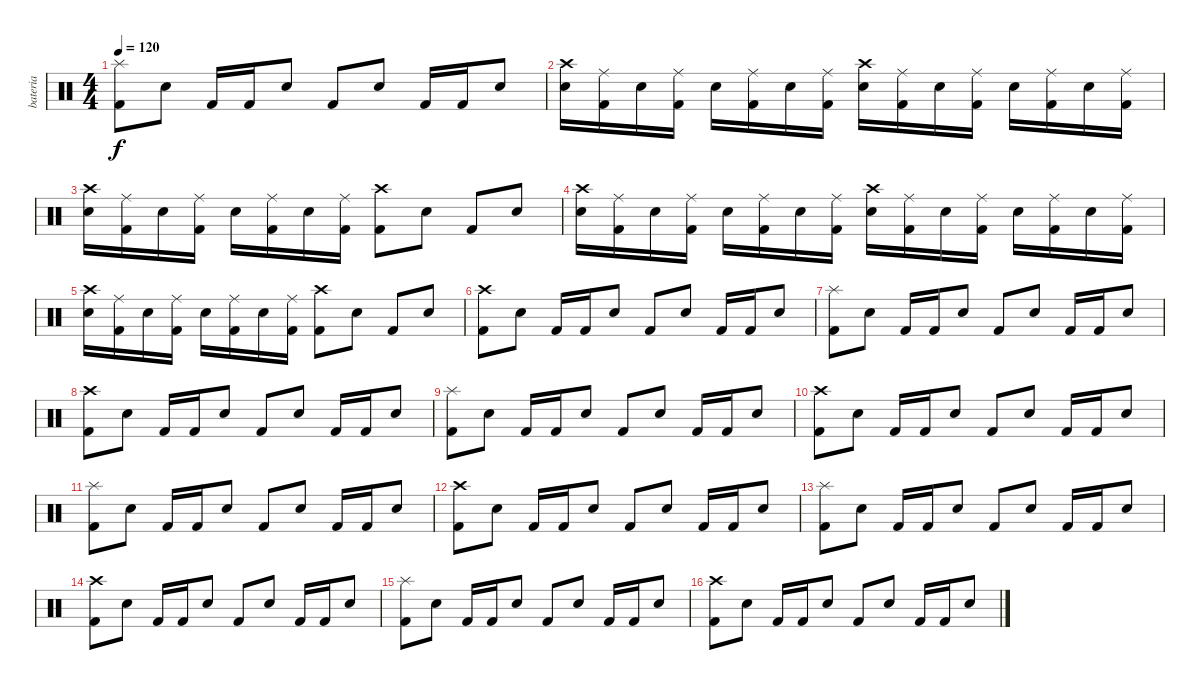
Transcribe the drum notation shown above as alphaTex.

\track ("bateria" "bateria") {instrument percussion}
\staff {score}
\articulation defaults
\ts (4 4)
\tempo 120
\clef neutral
\ks c
("Kick (hit) 2" "Splash (hit)").8{dy f} "Electric Snare (hit)".8 "Kick (hit) 2".16 "Kick (hit) 2".16 "Electric Snare (hit)".8 "Kick (hit) 2".8 "Electric Snare (hit)".8 "Kick (hit) 2".16 "Kick (hit) 2".16 "Electric Snare (hit)".8 |
("Electric Snare (hit)" "Crash high (hit)").16 ("Kick (hit) 2" "Ride (middle)").16 "Electric Snare (hit)".16 ("Kick (hit) 2" "Ride (middle)").16 "Electric Snare (hit)".16 ("Kick (hit) 2" "Ride (middle)").16 "Electric Snare (hit)".16 ("Kick (hit) 2" "Ride (middle)").16 ("Electric Snare (hit)" "Crash high (hit)").16 ("Kick (hit) 2" "Ride (middle)").16 "Electric Snare (hit)".16 ("Kick (hit) 2" "Ride (middle)").16 "Electric Snare (hit)".16 ("Kick (hit) 2" "Ride (middle)").16 "Electric Snare (hit)".16 ("Kick (hit) 2" "Ride (middle)").16 |
("Electric Snare (hit)" "Crash high (hit)").16 ("Kick (hit) 2" "Ride (middle)").16 "Electric Snare (hit)".16 ("Kick (hit) 2" "Ride (middle)").16 "Electric Snare (hit)".16 ("Kick (hit) 2" "Ride (middle)").16 "Electric Snare (hit)".16 ("Kick (hit) 2" "Ride (middle)").16 ("Kick (hit) 2" "Crash high (hit)").8 "Electric Snare (hit)".8 "Kick (hit) 2".8 "Electric Snare (hit)".8 |
("Electric Snare (hit)" "Crash high (hit)").16 ("Kick (hit) 2" "Ride (middle)").16 "Electric Snare (hit)".16 ("Kick (hit) 2" "Ride (middle)").16 "Electric Snare (hit)".16 ("Kick (hit) 2" "Ride (middle)").16 "Electric Snare (hit)".16 ("Kick (hit) 2" "Ride (middle)").16 ("Electric Snare (hit)" "Crash high (hit)").16 ("Kick (hit) 2" "Ride (middle)").16 "Electric Snare (hit)".16 ("Kick (hit) 2" "Ride (middle)").16 "Electric Snare (hit)".16 ("Kick (hit) 2" "Ride (middle)").16 "Electric Snare (hit)".16 ("Kick (hit) 2" "Ride (middle)").16 |
("Electric Snare (hit)" "Crash high (hit)").16 ("Kick (hit) 2" "Ride (middle)").16 "Electric Snare (hit)".16 ("Kick (hit) 2" "Ride (middle)").16 "Electric Snare (hit)".16 ("Kick (hit) 2" "Ride (middle)").16 "Electric Snare (hit)".16 ("Kick (hit) 2" "Ride (middle)").16 ("Kick (hit) 2" "Crash high (hit)").8 "Electric Snare (hit)".8 "Kick (hit) 2".8 "Electric Snare (hit)".8 |
("Kick (hit) 2" "Crash high (hit)").8 "Electric Snare (hit)".8 "Kick (hit) 2".16 "Kick (hit) 2".16 "Electric Snare (hit)".8 "Kick (hit) 2".8 "Electric Snare (hit)".8 "Kick (hit) 2".16 "Kick (hit) 2".16 "Electric Snare (hit)".8 |
("Kick (hit) 2" "Splash (hit)").8 "Electric Snare (hit)".8 "Kick (hit) 2".16 "Kick (hit) 2".16 "Electric Snare (hit)".8 "Kick (hit) 2".8 "Electric Snare (hit)".8 "Kick (hit) 2".16 "Kick (hit) 2".16 "Electric Snare (hit)".8 |
("Kick (hit) 2" "Crash high (hit)").8 "Electric Snare (hit)".8 "Kick (hit) 2".16 "Kick (hit) 2".16 "Electric Snare (hit)".8 "Kick (hit) 2".8 "Electric Snare (hit)".8 "Kick (hit) 2".16 "Kick (hit) 2".16 "Electric Snare (hit)".8 |
("Kick (hit) 2" "Splash (hit)").8 "Electric Snare (hit)".8 "Kick (hit) 2".16 "Kick (hit) 2".16 "Electric Snare (hit)".8 "Kick (hit) 2".8 "Electric Snare (hit)".8 "Kick (hit) 2".16 "Kick (hit) 2".16 "Electric Snare (hit)".8 |
("Kick (hit) 2" "Crash high (hit)").8 "Electric Snare (hit)".8 "Kick (hit) 2".16 "Kick (hit) 2".16 "Electric Snare (hit)".8 "Kick (hit) 2".8 "Electric Snare (hit)".8 "Kick (hit) 2".16 "Kick (hit) 2".16 "Electric Snare (hit)".8 |
("Kick (hit) 2" "Splash (hit)").8 "Electric Snare (hit)".8 "Kick (hit) 2".16 "Kick (hit) 2".16 "Electric Snare (hit)".8 "Kick (hit) 2".8 "Electric Snare (hit)".8 "Kick (hit) 2".16 "Kick (hit) 2".16 "Electric Snare (hit)".8 |
("Kick (hit) 2" "Crash high (hit)").8 "Electric Snare (hit)".8 "Kick (hit) 2".16 "Kick (hit) 2".16 "Electric Snare (hit)".8 "Kick (hit) 2".8 "Electric Snare (hit)".8 "Kick (hit) 2".16 "Kick (hit) 2".16 "Electric Snare (hit)".8 |
("Kick (hit) 2" "Splash (hit)").8 "Electric Snare (hit)".8 "Kick (hit) 2".16 "Kick (hit) 2".16 "Electric Snare (hit)".8 "Kick (hit) 2".8 "Electric Snare (hit)".8 "Kick (hit) 2".16 "Kick (hit) 2".16 "Electric Snare (hit)".8 |
("Kick (hit) 2" "Crash high (hit)").8 "Electric Snare (hit)".8 "Kick (hit) 2".16 "Kick (hit) 2".16 "Electric Snare (hit)".8 "Kick (hit) 2".8 "Electric Snare (hit)".8 "Kick (hit) 2".16 "Kick (hit) 2".16 "Electric Snare (hit)".8 |
("Kick (hit) 2" "Splash (hit)").8 "Electric Snare (hit)".8 "Kick (hit) 2".16 "Kick (hit) 2".16 "Electric Snare (hit)".8 "Kick (hit) 2".8 "Electric Snare (hit)".8 "Kick (hit) 2".16 "Kick (hit) 2".16 "Electric Snare (hit)".8 |
("Kick (hit) 2" "Crash high (hit)").8 "Electric Snare (hit)".8 "Kick (hit) 2".16 "Kick (hit) 2".16 "Electric Snare (hit)".8 "Kick (hit) 2".8 "Electric Snare (hit)".8 "Kick (hit) 2".16 "Kick (hit) 2".16 "Electric Snare (hit)".8
